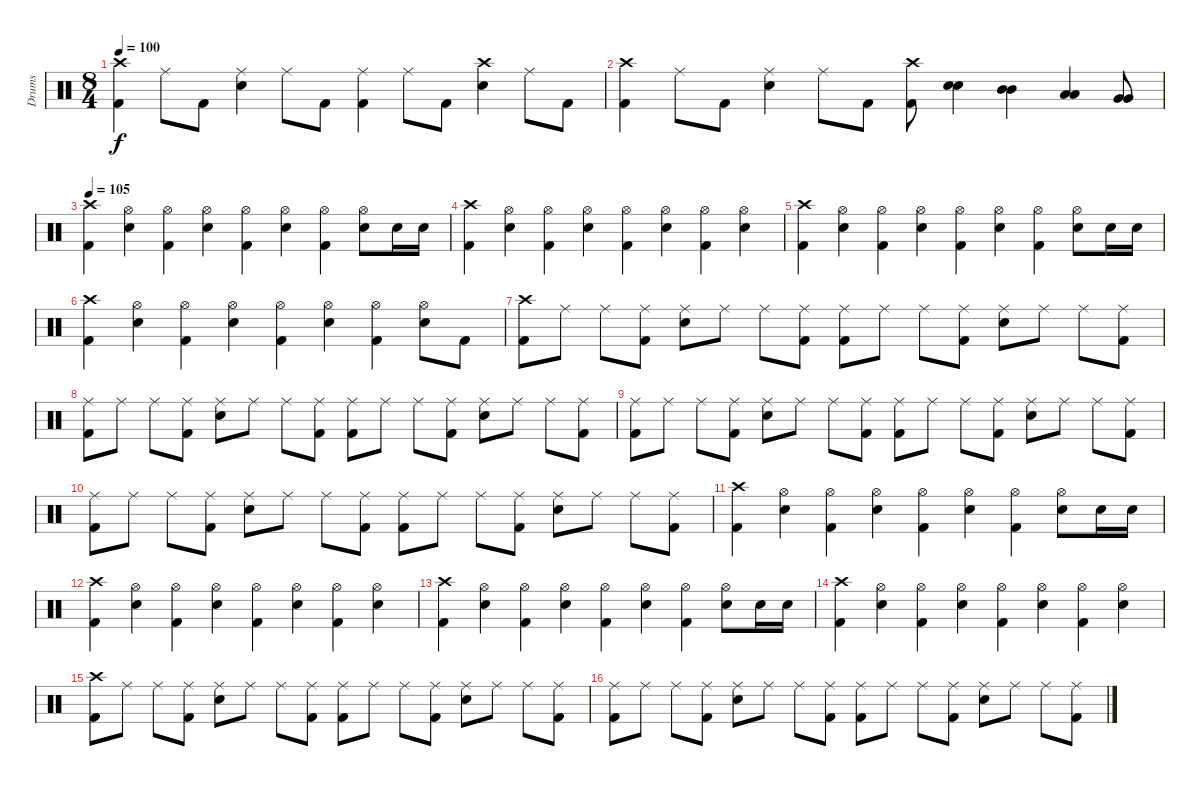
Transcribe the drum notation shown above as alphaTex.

\track ("Drums" "Drums") {instrument percussion}
\staff {score}
\articulation defaults
\ts (8 4)
\tempo 100
\clef neutral
\ks c
("Crash high (hit)" "Kick (hit) 2").4{dy f} "Ride (middle)".8 "Kick (hit) 2".8 ("Ride (middle)" "Electric Snare (hit)").4 "Ride (middle)".8 "Kick (hit) 2".8 ("Ride (middle)" "Kick (hit) 2").4 "Ride (middle)".8 "Kick (hit) 2".8 ("Crash high (hit)" "Electric Snare (hit)").4 "Ride (middle)".8 "Kick (hit) 2".8 |
("Crash high (hit)" "Kick (hit) 2").4 "Ride (middle)".8 "Kick (hit) 2".8 ("Ride (middle)" "Electric Snare (hit)").4 "Ride (middle)".8 "Kick (hit) 2".8 ("Crash high (hit)" "Kick (hit) 2").8 ("Electric Snare (hit)" "Electric Snare (hit)").4{bd 30} ("Mid Tom (hit)" "Mid Tom (hit)").4{bd 30} ("Low Tom (hit)" "Low Tom (hit)").4{bd 30} ("Very Low Tom (hit)" "Very Low Tom (hit)").8{bd 60} |
\tempo 105
("Crash high (hit)" "Kick (hit) 2").4 ("Hi-Hat (open)" "Electric Snare (hit)").4 ("Hi-Hat (open)" "Kick (hit) 2").4 ("Hi-Hat (open)" "Electric Snare (hit)").4 ("Hi-Hat (open)" "Kick (hit) 2").4 ("Hi-Hat (open)" "Electric Snare (hit)").4 ("Hi-Hat (open)" "Kick (hit) 2").4 ("Hi-Hat (open)" "Electric Snare (hit)").8 "Electric Snare (hit)".16 "Electric Snare (hit)".16 |
("Crash high (hit)" "Kick (hit) 2").4 ("Hi-Hat (open)" "Electric Snare (hit)").4 ("Hi-Hat (open)" "Kick (hit) 2").4 ("Hi-Hat (open)" "Electric Snare (hit)").4 ("Hi-Hat (open)" "Kick (hit) 2").4 ("Hi-Hat (open)" "Electric Snare (hit)").4 ("Hi-Hat (open)" "Kick (hit) 2").4 ("Hi-Hat (open)" "Electric Snare (hit)").4 |
("Crash high (hit)" "Kick (hit) 2").4 ("Hi-Hat (open)" "Electric Snare (hit)").4 ("Hi-Hat (open)" "Kick (hit) 2").4 ("Hi-Hat (open)" "Electric Snare (hit)").4 ("Hi-Hat (open)" "Kick (hit) 2").4 ("Hi-Hat (open)" "Electric Snare (hit)").4 ("Hi-Hat (open)" "Kick (hit) 2").4 ("Hi-Hat (open)" "Electric Snare (hit)").8 "Electric Snare (hit)".16 "Electric Snare (hit)".16 |
("Crash high (hit)" "Kick (hit) 2").4 ("Hi-Hat (open)" "Electric Snare (hit)").4 ("Hi-Hat (open)" "Kick (hit) 2").4 ("Hi-Hat (open)" "Electric Snare (hit)").4 ("Hi-Hat (open)" "Kick (hit) 2").4 ("Hi-Hat (open)" "Electric Snare (hit)").4 ("Hi-Hat (open)" "Kick (hit) 2").4 ("Hi-Hat (open)" "Electric Snare (hit)").8 "Kick (hit) 2".8 |
("Crash high (hit)" "Kick (hit) 2").8 "Ride (middle)".8 "Ride (middle)".8 ("Ride (middle)" "Kick (hit) 2").8 ("Ride (middle)" "Electric Snare (hit)").8 "Ride (middle)".8 "Ride (middle)".8 ("Ride (middle)" "Kick (hit) 2").8 ("Ride (middle)" "Kick (hit) 2").8 "Ride (middle)".8 "Ride (middle)".8 ("Ride (middle)" "Kick (hit) 2").8 ("Ride (middle)" "Electric Snare (hit)").8 "Ride (middle)".8 "Ride (middle)".8 ("Ride (middle)" "Kick (hit) 2").8 |
("Ride (middle)" "Kick (hit) 2").8 "Ride (middle)".8 "Ride (middle)".8 ("Ride (middle)" "Kick (hit) 2").8 ("Ride (middle)" "Electric Snare (hit)").8 "Ride (middle)".8 "Ride (middle)".8 ("Ride (middle)" "Kick (hit) 2").8 ("Ride (middle)" "Kick (hit) 2").8 "Ride (middle)".8 "Ride (middle)".8 ("Ride (middle)" "Kick (hit) 2").8 ("Ride (middle)" "Electric Snare (hit)").8 "Ride (middle)".8 "Ride (middle)".8 ("Ride (middle)" "Kick (hit) 2").8 |
("Ride (middle)" "Kick (hit) 2").8 "Ride (middle)".8 "Ride (middle)".8 ("Ride (middle)" "Kick (hit) 2").8 ("Ride (middle)" "Electric Snare (hit)").8 "Ride (middle)".8 "Ride (middle)".8 ("Ride (middle)" "Kick (hit) 2").8 ("Ride (middle)" "Kick (hit) 2").8 "Ride (middle)".8 "Ride (middle)".8 ("Ride (middle)" "Kick (hit) 2").8 ("Ride (middle)" "Electric Snare (hit)").8 "Ride (middle)".8 "Ride (middle)".8 ("Ride (middle)" "Kick (hit) 2").8 |
("Ride (middle)" "Kick (hit) 2").8 "Ride (middle)".8 "Ride (middle)".8 ("Ride (middle)" "Kick (hit) 2").8 ("Ride (middle)" "Electric Snare (hit)").8 "Ride (middle)".8 "Ride (middle)".8 ("Ride (middle)" "Kick (hit) 2").8 ("Ride (middle)" "Kick (hit) 2").8 "Ride (middle)".8 "Ride (middle)".8 ("Ride (middle)" "Kick (hit) 2").8 ("Ride (middle)" "Electric Snare (hit)").8 "Ride (middle)".8 "Ride (middle)".8 ("Ride (middle)" "Kick (hit) 2").8 |
("Crash high (hit)" "Kick (hit) 2").4 ("Hi-Hat (open)" "Electric Snare (hit)").4 ("Hi-Hat (open)" "Kick (hit) 2").4 ("Hi-Hat (open)" "Electric Snare (hit)").4 ("Hi-Hat (open)" "Kick (hit) 2").4 ("Hi-Hat (open)" "Electric Snare (hit)").4 ("Hi-Hat (open)" "Kick (hit) 2").4 ("Hi-Hat (open)" "Electric Snare (hit)").8 "Electric Snare (hit)".16 "Electric Snare (hit)".16 |
("Crash high (hit)" "Kick (hit) 2").4 ("Hi-Hat (open)" "Electric Snare (hit)").4 ("Hi-Hat (open)" "Kick (hit) 2").4 ("Hi-Hat (open)" "Electric Snare (hit)").4 ("Hi-Hat (open)" "Kick (hit) 2").4 ("Hi-Hat (open)" "Electric Snare (hit)").4 ("Hi-Hat (open)" "Kick (hit) 2").4 ("Hi-Hat (open)" "Electric Snare (hit)").4 |
("Crash high (hit)" "Kick (hit) 2").4 ("Hi-Hat (open)" "Electric Snare (hit)").4 ("Hi-Hat (open)" "Kick (hit) 2").4 ("Hi-Hat (open)" "Electric Snare (hit)").4 ("Hi-Hat (open)" "Kick (hit) 2").4 ("Hi-Hat (open)" "Electric Snare (hit)").4 ("Hi-Hat (open)" "Kick (hit) 2").4 ("Hi-Hat (open)" "Electric Snare (hit)").8 "Electric Snare (hit)".16 "Electric Snare (hit)".16 |
("Crash high (hit)" "Kick (hit) 2").4 ("Hi-Hat (open)" "Electric Snare (hit)").4 ("Hi-Hat (open)" "Kick (hit) 2").4 ("Hi-Hat (open)" "Electric Snare (hit)").4 ("Hi-Hat (open)" "Kick (hit) 2").4 ("Hi-Hat (open)" "Electric Snare (hit)").4 ("Hi-Hat (open)" "Kick (hit) 2").4 ("Hi-Hat (open)" "Electric Snare (hit)").4 |
("Crash high (hit)" "Kick (hit) 2").8 "Ride (middle)".8 "Ride (middle)".8 ("Ride (middle)" "Kick (hit) 2").8 ("Ride (middle)" "Electric Snare (hit)").8 "Ride (middle)".8 "Ride (middle)".8 ("Ride (middle)" "Kick (hit) 2").8 ("Ride (middle)" "Kick (hit) 2").8 "Ride (middle)".8 "Ride (middle)".8 ("Ride (middle)" "Kick (hit) 2").8 ("Ride (middle)" "Electric Snare (hit)").8 "Ride (middle)".8 "Ride (middle)".8 ("Ride (middle)" "Kick (hit) 2").8 |
("Ride (middle)" "Kick (hit) 2").8 "Ride (middle)".8 "Ride (middle)".8 ("Ride (middle)" "Kick (hit) 2").8 ("Ride (middle)" "Electric Snare (hit)").8 "Ride (middle)".8 "Ride (middle)".8 ("Ride (middle)" "Kick (hit) 2").8 ("Ride (middle)" "Kick (hit) 2").8 "Ride (middle)".8 "Ride (middle)".8 ("Ride (middle)" "Kick (hit) 2").8 ("Ride (middle)" "Electric Snare (hit)").8 "Ride (middle)".8 "Ride (middle)".8 ("Ride (middle)" "Kick (hit) 2").8
